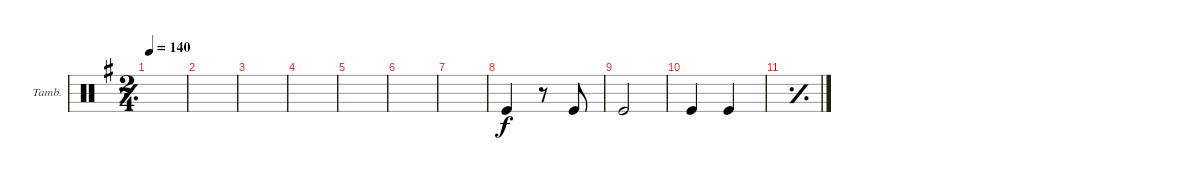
\defaultSystemsLayout 4
\bracketExtendMode groupsimilarinstruments
\firstSystemTrackNameOrientation horizontal
\otherSystemsTrackNameOrientation horizontal
\track ("Tambourine" "Tamb.") {instrument percussion}
\staff {score}
\articulation defaults
\ts (2 4)
\tempo 140
\clef neutral
\simile simple
\ks g
|
|
|
|
|
|
|
\simile none "Kick (hit)".4
r.8 "Kick (hit)".8 |
"Kick (hit)".2 |
"Kick (hit)".4 "Kick (hit)".4 |
\simile simple
